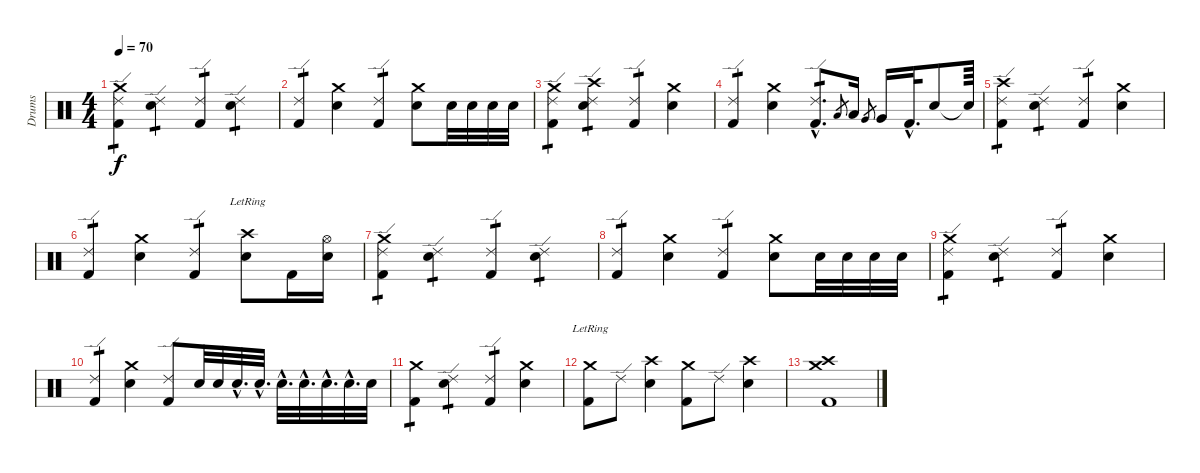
\track ("Drums" "Drums") {instrument percussion}
\staff {score}
\articulation defaults
\ts (4 4)
\tempo 70
\clef neutral
\ks c
("Crash medium (hit)" "Ride (edge) 2" "Kick (hit) 2").4{tp 1 dy f} ("Ride (edge) 2" "Snare (hit) 2").4{tp 1} ("Ride (edge) 2" "Kick (hit) 2").4{tp 1} ("Ride (edge) 2" "Snare (hit) 2").4{tp 1} |
("Ride (edge) 2" "Kick (hit) 2").4{tp 1} ("Crash medium (hit)" "Snare (hit) 2").4 ("Ride (edge) 2" "Kick (hit) 2").4{tp 1} ("Crash medium (hit)" "Snare (hit) 2").8 "Snare (hit) 2".32 "Snare (hit) 2".32 "Snare (hit) 2".32 "Snare (hit) 2".32 |
("Crash medium (hit)" "Ride (edge) 2" "Kick (hit) 2").4{tp 1} ("Crash high (hit)" "Ride (edge) 2" "Snare (hit) 2").4{tp 1} ("Ride (edge) 2" "Kick (hit) 2").4{tp 1} ("Crash medium (hit)" "Snare (hit) 2").4 |
("Ride (edge) 2" "Kick (hit) 2").4{tp 1} ("Crash medium (hit)" "Snare (hit) 2").4 ("Ride (edge) 2"{hac} "Kick (hit) 2"{hac}).8{d tp 1} "Low Tom (hit)".8{gr} "Low Tom (hit)".16 "Very Low Tom (hit)".8{gr} "Very Low Tom (hit)".16 "Kick (hit) 2"{hac}.32{d} "Snare (hit) 2".8 "Snare (hit)"{t}.64 |
("Crash high (hit)" "Ride (edge) 2" "Kick (hit) 2").4{tp 1} ("Ride (edge) 2" "Snare (hit) 2").4{tp 1} ("Ride (edge) 2" "Kick (hit) 2").4{tp 1} ("Crash medium (hit)" "Snare (hit) 2").4 |
("Ride (edge) 2" "Kick (hit) 2").4{tp 1} ("Crash medium (hit)" "Snare (hit) 2").4 ("Ride (edge) 2" "Kick (hit) 2").4{tp 1} ("Crash high (hit)"{lr} "Snare (hit) 2").8 "Kick (hit) 2".16 ("Hi-Hat (open)" "Snare (hit) 2").16 |
("Crash medium (hit)" "Ride (edge) 2" "Kick (hit) 2").4{tp 1} ("Ride (edge) 2" "Snare (hit) 2").4{tp 1} ("Ride (edge) 2" "Kick (hit) 2").4{tp 1} ("Ride (edge) 2" "Snare (hit) 2").4{tp 1} |
("Ride (edge) 2" "Kick (hit) 2").4{tp 1} ("Crash medium (hit)" "Snare (hit) 2").4 ("Ride (edge) 2" "Kick (hit) 2").4{tp 1} ("Crash medium (hit)" "Snare (hit) 2").8 "Snare (hit) 2".32 "Snare (hit) 2".32 "Snare (hit) 2".32 "Snare (hit) 2".32 |
("Crash medium (hit)" "Ride (edge) 2" "Kick (hit) 2").4{tp 1} ("Ride (edge) 2" "Snare (hit) 2").4{tp 1} ("Ride (edge) 2" "Kick (hit) 2").4{tp 1} ("Crash medium (hit)" "Snare (hit) 2").4 |
("Ride (edge) 2" "Kick (hit) 2").4{tp 1} ("Crash medium (hit)" "Snare (hit) 2").4 ("Ride (edge) 2" "Kick (hit) 2").8 "Snare (hit) 2".32 "Snare (hit) 2".32 "Snare (hit) 2"{hac}.32{d} "Snare (hit) 2"{hac}.32{d} "Snare (hit) 2"{hac}.32{d} "Snare (hit) 2"{hac}.32{d} "Snare (hit) 2"{hac}.32{d} "Snare (hit) 2"{hac}.32{d} "Snare (hit) 2".32 |
("Crash medium (hit)" "Kick (hit) 2").4{tp 1} ("Ride (edge) 2" "Snare (hit) 2").4{tp 1} ("Ride (edge) 2" "Kick (hit) 2").4{tp 1} ("Crash medium (hit)" "Snare (hit) 2").4 |
("Crash medium (hit)"{lr} "Kick (hit) 2").8 "Ride (edge) 2".8 ("Crash high (hit)" "Snare (hit) 2").4 ("Crash medium (hit)" "Kick (hit) 2").8 "Ride (edge) 2".8 ("Crash high (hit)" "Snare (hit) 2").4 |
("Crash medium (hit)" "Crash high (hit)" "Kick (hit) 2").1
